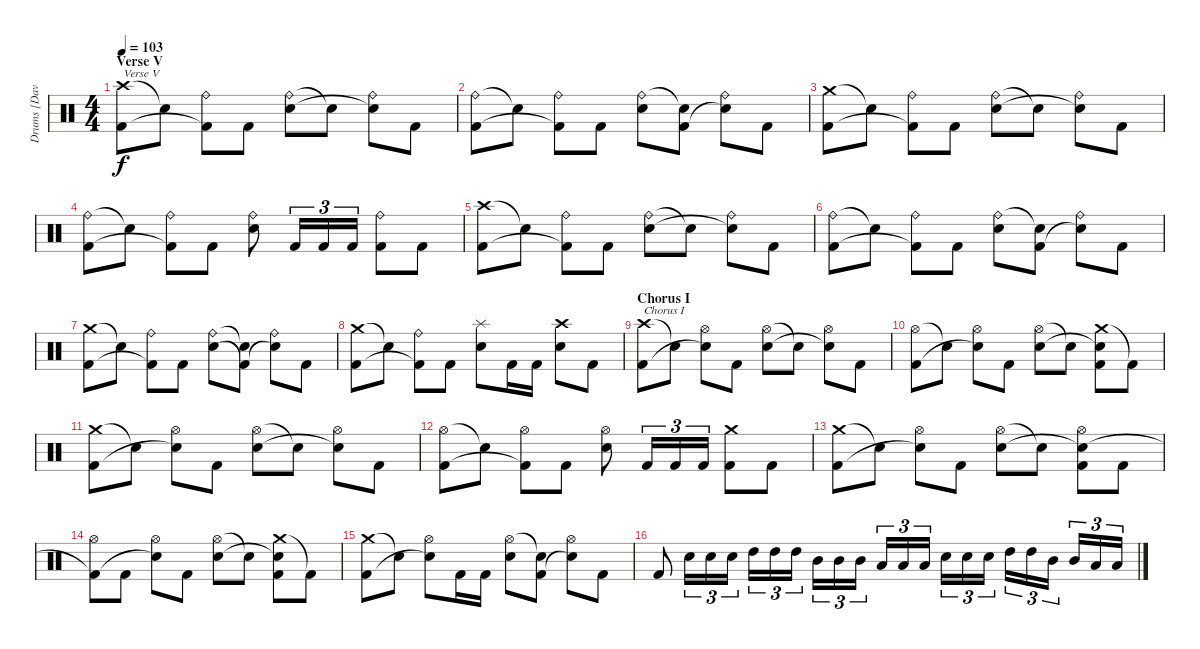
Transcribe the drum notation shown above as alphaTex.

\track ("Drums [Dave Culross]" "Drums [Dav") {instrument percussion}
\staff {score}
\articulation defaults
\ts (4 4)
\section ("" "Verse V")
\tempo 103
\clef neutral
\ks c
("Crash high (hit)" "Kick (hit) 2").8{txt "Verse V" dy f} "Snare (hit)"{t}.8 ("Ride (bell)" "Kick (hit) 2"{t}).8 "Kick (hit) 2".8 ("Ride (bell)" "Electric Snare (hit)").8 "Snare (hit)"{t}.8 ("Ride (bell)" "Snare (hit)"{t}).8 "Kick (hit) 2".8 |
("Ride (bell)" "Kick (hit) 2").8 "Snare (hit)"{t}.8 ("Ride (bell)" "Kick (hit) 2"{t}).8 "Kick (hit) 2".8 ("Ride (bell)" "Electric Snare (hit)").8 ("Snare (hit)"{t} "Kick (hit) 2").8 ("Ride (bell)" "Snare (hit)"{t}).8 "Kick (hit) 2".8 |
("Crash medium (hit)" "Kick (hit) 2").8 "Snare (hit)"{t}.8 ("Ride (bell)" "Kick (hit) 2"{t}).8 "Kick (hit) 2".8 ("Ride (bell)" "Electric Snare (hit)").8 "Snare (hit)"{t}.8 ("Ride (bell)" "Snare (hit)"{t}).8 "Kick (hit) 2".8 |
("Ride (bell)" "Kick (hit) 2").8 "Snare (hit)"{t}.8 ("Ride (bell)" "Kick (hit) 2"{t}).8 "Kick (hit) 2".8 ("Ride (bell)" "Electric Snare (hit)").8 "Kick (hit) 2".16{tu (3 2)} "Kick (hit) 2".16{tu (3 2)} "Kick (hit) 2".16{tu (3 2)} ("Ride (bell)" "Kick (hit) 2").8 "Kick (hit) 2".8 |
("Crash high (hit)" "Kick (hit) 2").8 "Snare (hit)"{t}.8 ("Ride (bell)" "Kick (hit) 2"{t}).8 "Kick (hit) 2".8 ("Ride (bell)" "Electric Snare (hit)").8 "Snare (hit)"{t}.8 ("Ride (bell)" "Snare (hit)"{t}).8 "Kick (hit) 2".8 |
("Ride (bell)" "Kick (hit) 2").8 "Snare (hit)"{t}.8 ("Ride (bell)" "Kick (hit) 2"{t}).8 "Kick (hit) 2".8 ("Ride (bell)" "Electric Snare (hit)").8 ("Snare (hit)"{t} "Kick (hit) 2").8 ("Ride (bell)" "Snare (hit)"{t}).8 "Kick (hit) 2".8 |
("Crash medium (hit)" "Kick (hit) 2").8 "Snare (hit)"{t}.8 ("Ride (bell)" "Kick (hit) 2"{t}).8 "Kick (hit) 2".8 ("Ride (bell)" "Electric Snare (hit)").8 ("Snare (hit)"{t} "Kick (hit) 2"{t}).8 ("Ride (bell)" "Snare (hit)"{t}).8 "Kick (hit) 2".8 |
("Crash medium (hit)" "Kick (hit) 2").8 "Snare (hit)"{t}.8 ("Ride (bell)" "Kick (hit) 2"{t}).8 "Kick (hit) 2".8 ("Splash (hit)" "Electric Snare (hit)").8 "Kick (hit) 2".16 "Kick (hit) 2".16 ("Crash high (hit)" "Electric Snare (hit)").8 "Kick (hit) 2".8 |
\section ("" "Chorus I")
("Crash high (hit)" "Kick (hit) 2").8{txt "Chorus I"} "Snare (hit)"{t}.8 ("Hi-Hat (open)" "Snare (hit)"{t}).8 "Kick (hit) 2".8 ("Hi-Hat (open)" "Electric Snare (hit)").8 "Snare (hit)"{t}.8 ("Hi-Hat (open)" "Snare (hit)"{t}).8 "Kick (hit) 2".8 |
("Hi-Hat (open)" "Kick (hit) 2").8 "Snare (hit)"{t}.8 ("Hi-Hat (open)" "Snare (hit)"{t}).8 "Kick (hit) 2".8 ("Hi-Hat (open)" "Electric Snare (hit)").8 "Snare (hit)"{t}.8 ("Crash medium (hit)" "Snare (hit)"{t} "Kick (hit) 2").8 "Kick (hit) 2"{t}.8 |
("Crash medium (hit)" "Kick (hit) 2").8 "Snare (hit)"{t}.8 ("Hi-Hat (open)" "Snare (hit)"{t}).8 "Kick (hit) 2".8 ("Hi-Hat (open)" "Electric Snare (hit)").8 "Snare (hit)"{t}.8 ("Hi-Hat (open)" "Snare (hit)"{t}).8 "Kick (hit) 2".8 |
("Hi-Hat (open)" "Kick (hit) 2").8 "Snare (hit)"{t}.8 ("Hi-Hat (open)" "Kick (hit) 2"{t}).8 "Kick (hit) 2".8 ("Hi-Hat (open)" "Electric Snare (hit)").8 "Kick (hit) 2".16{tu (3 2)} "Kick (hit) 2".16{tu (3 2)} "Kick (hit) 2".16{tu (3 2)} ("Crash medium (hit)" "Kick (hit) 2").8 "Kick (hit) 2".8 |
("Crash medium (hit)" "Kick (hit) 2").8 "Snare (hit)"{t}.8 ("Hi-Hat (open)" "Snare (hit)"{t}).8 "Kick (hit) 2".8 ("Hi-Hat (open)" "Electric Snare (hit)").8 "Snare (hit)"{t}.8 ("Hi-Hat (open)" "Snare (hit)"{t} "Kick (hit) 2").8 "Kick (hit) 2".8 |
("Hi-Hat (open)" "Kick (hit) 2"{t}).8 "Kick (hit) 2".8 ("Hi-Hat (open)" "Snare (hit)"{t}).8 "Kick (hit) 2".8 ("Hi-Hat (open)" "Electric Snare (hit)").8 "Snare (hit)"{t}.8 ("Crash medium (hit)" "Snare (hit)"{t} "Kick (hit) 2").8 "Kick (hit) 2"{t}.8 |
("Crash medium (hit)" "Kick (hit) 2").8 "Snare (hit)"{t}.8 ("Hi-Hat (open)" "Snare (hit)"{t}).8 "Kick (hit) 2".16 "Kick (hit) 2".16 ("Hi-Hat (open)" "Electric Snare (hit)").8 ("Snare (hit)"{t} "Kick (hit) 2").8 ("Hi-Hat (open)" "Snare (hit)"{t}).8 "Kick (hit) 2".8 |
"Kick (hit) 2".8 "Electric Snare (hit)".16{tu (3 2)} "Electric Snare (hit)".16{tu (3 2)} "Electric Snare (hit)".16{tu (3 2)} "High Tom (hit)".16{tu (3 2)} "High Tom (hit)".16{tu (3 2)} "High Tom (hit)".16{tu (3 2)} "Mid Tom (hit)".16{tu (3 2)} "Mid Tom (hit)".16{tu (3 2)} "Mid Tom (hit)".16{tu (3 2)} "Low Tom (hit)".16{tu (3 2)} "Low Tom (hit)".16{tu (3 2)} "Low Tom (hit)".16{tu (3 2)} "Electric Snare (hit)".16{tu (3 2)} "Electric Snare (hit)".16{tu (3 2)} "Electric Snare (hit)".16{tu (3 2)} "High Tom (hit)".16{tu (3 2)} "High Tom (hit)".16{tu (3 2)} "Mid Tom (hit)".16{tu (3 2)} "Mid Tom (hit)".16{tu (3 2)} "Low Tom (hit)".16{tu (3 2)} "Low Tom (hit)".16{tu (3 2)}
